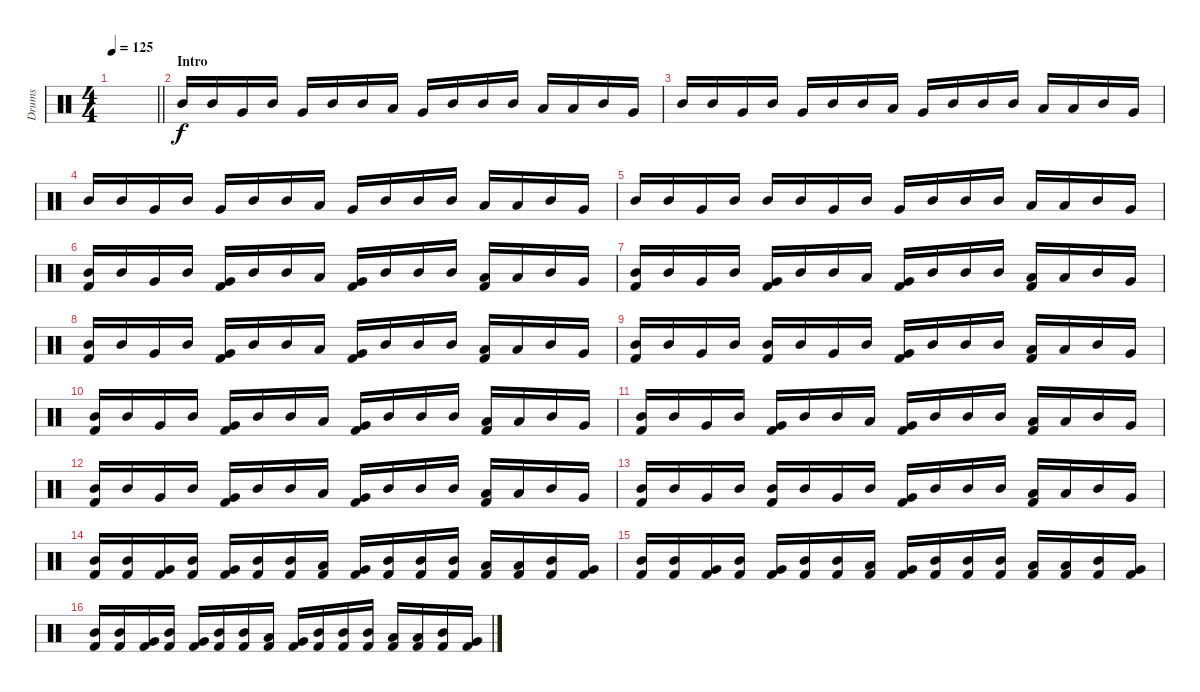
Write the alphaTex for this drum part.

\track ("Drums" "Drums") {instrument percussion}
\staff {score}
\articulation defaults
\ts (4 4)
\tempo 125
\clef neutral
\barLineRight lightlight
\ks c
|
\section ("" "Intro")
"Mid Tom (hit)".16 "Mid Tom (hit)".16 "Very Low Tom (hit)".16 "Mid Tom (hit)".16 "Very Low Tom (hit)".16 "Mid Tom (hit)".16 "Mid Tom (hit)".16 "Low Tom (hit)".16 "Very Low Tom (hit)".16 "Mid Tom (hit)".16 "Mid Tom (hit)".16 "Mid Tom (hit)".16 "Low Tom (hit)".16 "Low Tom (hit)".16 "Mid Tom (hit)".16 "Very Low Tom (hit)".16 |
"Mid Tom (hit)".16 "Mid Tom (hit)".16 "Very Low Tom (hit)".16 "Mid Tom (hit)".16 "Very Low Tom (hit)".16 "Mid Tom (hit)".16 "Mid Tom (hit)".16 "Low Tom (hit)".16 "Very Low Tom (hit)".16 "Mid Tom (hit)".16 "Mid Tom (hit)".16 "Mid Tom (hit)".16 "Low Tom (hit)".16 "Low Tom (hit)".16 "Mid Tom (hit)".16 "Very Low Tom (hit)".16 |
"Mid Tom (hit)".16 "Mid Tom (hit)".16 "Very Low Tom (hit)".16 "Mid Tom (hit)".16 "Very Low Tom (hit)".16 "Mid Tom (hit)".16 "Mid Tom (hit)".16 "Low Tom (hit)".16 "Very Low Tom (hit)".16 "Mid Tom (hit)".16 "Mid Tom (hit)".16 "Mid Tom (hit)".16 "Low Tom (hit)".16 "Low Tom (hit)".16 "Mid Tom (hit)".16 "Very Low Tom (hit)".16 |
"Mid Tom (hit)".16 "Mid Tom (hit)".16 "Very Low Tom (hit)".16 "Mid Tom (hit)".16 "Mid Tom (hit)".16 "Mid Tom (hit)".16 "Very Low Tom (hit)".16 "Mid Tom (hit)".16 "Very Low Tom (hit)".16 "Mid Tom (hit)".16 "Mid Tom (hit)".16 "Mid Tom (hit)".16 "Low Tom (hit)".16 "Low Tom (hit)".16 "Mid Tom (hit)".16 "Very Low Tom (hit)".16 |
("Mid Tom (hit)" "Kick (hit) 2").16 "Mid Tom (hit)".16 "Very Low Tom (hit)".16 "Mid Tom (hit)".16 ("Very Low Tom (hit)" "Kick (hit) 2").16 "Mid Tom (hit)".16 "Mid Tom (hit)".16 "Low Tom (hit)".16 ("Very Low Tom (hit)" "Kick (hit) 2").16 "Mid Tom (hit)".16 "Mid Tom (hit)".16 "Mid Tom (hit)".16 ("Low Tom (hit)" "Kick (hit) 2").16 "Low Tom (hit)".16 "Mid Tom (hit)".16 "Very Low Tom (hit)".16 |
("Mid Tom (hit)" "Kick (hit) 2").16 "Mid Tom (hit)".16 "Very Low Tom (hit)".16 "Mid Tom (hit)".16 ("Very Low Tom (hit)" "Kick (hit) 2").16 "Mid Tom (hit)".16 "Mid Tom (hit)".16 "Low Tom (hit)".16 ("Very Low Tom (hit)" "Kick (hit) 2").16 "Mid Tom (hit)".16 "Mid Tom (hit)".16 "Mid Tom (hit)".16 ("Low Tom (hit)" "Kick (hit) 2").16 "Low Tom (hit)".16 "Mid Tom (hit)".16 "Very Low Tom (hit)".16 |
("Mid Tom (hit)" "Kick (hit) 2").16 "Mid Tom (hit)".16 "Very Low Tom (hit)".16 "Mid Tom (hit)".16 ("Very Low Tom (hit)" "Kick (hit) 2").16 "Mid Tom (hit)".16 "Mid Tom (hit)".16 "Low Tom (hit)".16 ("Very Low Tom (hit)" "Kick (hit) 2").16 "Mid Tom (hit)".16 "Mid Tom (hit)".16 "Mid Tom (hit)".16 ("Low Tom (hit)" "Kick (hit) 2").16 "Low Tom (hit)".16 "Mid Tom (hit)".16 "Very Low Tom (hit)".16 |
("Mid Tom (hit)" "Kick (hit) 2").16 "Mid Tom (hit)".16 "Very Low Tom (hit)".16 "Mid Tom (hit)".16 ("Mid Tom (hit)" "Kick (hit) 2").16 "Mid Tom (hit)".16 "Very Low Tom (hit)".16 "Mid Tom (hit)".16 ("Very Low Tom (hit)" "Kick (hit) 2").16 "Mid Tom (hit)".16 "Mid Tom (hit)".16 "Mid Tom (hit)".16 ("Low Tom (hit)" "Kick (hit) 2").16 "Low Tom (hit)".16 "Mid Tom (hit)".16 "Very Low Tom (hit)".16 |
("Mid Tom (hit)" "Kick (hit) 2").16 "Mid Tom (hit)".16 "Very Low Tom (hit)".16 "Mid Tom (hit)".16 ("Very Low Tom (hit)" "Kick (hit) 2").16 "Mid Tom (hit)".16 "Mid Tom (hit)".16 "Low Tom (hit)".16 ("Very Low Tom (hit)" "Kick (hit) 2").16 "Mid Tom (hit)".16 "Mid Tom (hit)".16 "Mid Tom (hit)".16 ("Low Tom (hit)" "Kick (hit) 2").16 "Low Tom (hit)".16 "Mid Tom (hit)".16 "Very Low Tom (hit)".16 |
("Mid Tom (hit)" "Kick (hit) 2").16 "Mid Tom (hit)".16 "Very Low Tom (hit)".16 "Mid Tom (hit)".16 ("Very Low Tom (hit)" "Kick (hit) 2").16 "Mid Tom (hit)".16 "Mid Tom (hit)".16 "Low Tom (hit)".16 ("Very Low Tom (hit)" "Kick (hit) 2").16 "Mid Tom (hit)".16 "Mid Tom (hit)".16 "Mid Tom (hit)".16 ("Low Tom (hit)" "Kick (hit) 2").16 "Low Tom (hit)".16 "Mid Tom (hit)".16 "Very Low Tom (hit)".16 |
("Mid Tom (hit)" "Kick (hit) 2").16 "Mid Tom (hit)".16 "Very Low Tom (hit)".16 "Mid Tom (hit)".16 ("Very Low Tom (hit)" "Kick (hit) 2").16 "Mid Tom (hit)".16 "Mid Tom (hit)".16 "Low Tom (hit)".16 ("Very Low Tom (hit)" "Kick (hit) 2").16 "Mid Tom (hit)".16 "Mid Tom (hit)".16 "Mid Tom (hit)".16 ("Low Tom (hit)" "Kick (hit) 2").16 "Low Tom (hit)".16 "Mid Tom (hit)".16 "Very Low Tom (hit)".16 |
("Mid Tom (hit)" "Kick (hit) 2").16 "Mid Tom (hit)".16 "Very Low Tom (hit)".16 "Mid Tom (hit)".16 ("Mid Tom (hit)" "Kick (hit) 2").16 "Mid Tom (hit)".16 "Very Low Tom (hit)".16 "Mid Tom (hit)".16 ("Very Low Tom (hit)" "Kick (hit) 2").16 "Mid Tom (hit)".16 "Mid Tom (hit)".16 "Mid Tom (hit)".16 ("Low Tom (hit)" "Kick (hit) 2").16 "Low Tom (hit)".16 "Mid Tom (hit)".16 "Very Low Tom (hit)".16 |
("Mid Tom (hit)" "Kick (hit) 2").16 ("Mid Tom (hit)" "Kick (hit) 2").16 ("Very Low Tom (hit)" "Kick (hit) 2").16 ("Mid Tom (hit)" "Kick (hit) 2").16 ("Very Low Tom (hit)" "Kick (hit) 2").16 ("Mid Tom (hit)" "Kick (hit) 2").16 ("Mid Tom (hit)" "Kick (hit) 2").16 ("Low Tom (hit)" "Kick (hit) 2").16 ("Very Low Tom (hit)" "Kick (hit) 2").16 ("Mid Tom (hit)" "Kick (hit) 2").16 ("Mid Tom (hit)" "Kick (hit) 2").16 ("Mid Tom (hit)" "Kick (hit) 2").16 ("Low Tom (hit)" "Kick (hit) 2").16 ("Low Tom (hit)" "Kick (hit) 2").16 ("Mid Tom (hit)" "Kick (hit) 2").16 ("Very Low Tom (hit)" "Kick (hit) 2").16 |
("Mid Tom (hit)" "Kick (hit) 2").16 ("Mid Tom (hit)" "Kick (hit) 2").16 ("Very Low Tom (hit)" "Kick (hit) 2").16 ("Mid Tom (hit)" "Kick (hit) 2").16 ("Very Low Tom (hit)" "Kick (hit) 2").16 ("Mid Tom (hit)" "Kick (hit) 2").16 ("Mid Tom (hit)" "Kick (hit) 2").16 ("Low Tom (hit)" "Kick (hit) 2").16 ("Very Low Tom (hit)" "Kick (hit) 2").16 ("Mid Tom (hit)" "Kick (hit) 2").16 ("Mid Tom (hit)" "Kick (hit) 2").16 ("Mid Tom (hit)" "Kick (hit) 2").16 ("Low Tom (hit)" "Kick (hit) 2").16 ("Low Tom (hit)" "Kick (hit) 2").16 ("Mid Tom (hit)" "Kick (hit) 2").16 ("Very Low Tom (hit)" "Kick (hit) 2").16 |
("Mid Tom (hit)" "Kick (hit) 2").16 ("Mid Tom (hit)" "Kick (hit) 2").16 ("Very Low Tom (hit)" "Kick (hit) 2").16 ("Mid Tom (hit)" "Kick (hit) 2").16 ("Very Low Tom (hit)" "Kick (hit) 2").16 ("Mid Tom (hit)" "Kick (hit) 2").16 ("Mid Tom (hit)" "Kick (hit) 2").16 ("Low Tom (hit)" "Kick (hit) 2").16 ("Very Low Tom (hit)" "Kick (hit) 2").16 ("Mid Tom (hit)" "Kick (hit) 2").16 ("Mid Tom (hit)" "Kick (hit) 2").16 ("Mid Tom (hit)" "Kick (hit) 2").16 ("Low Tom (hit)" "Kick (hit) 2").16 ("Low Tom (hit)" "Kick (hit) 2").16 ("Mid Tom (hit)" "Kick (hit) 2").16 ("Very Low Tom (hit)" "Kick (hit) 2").16
